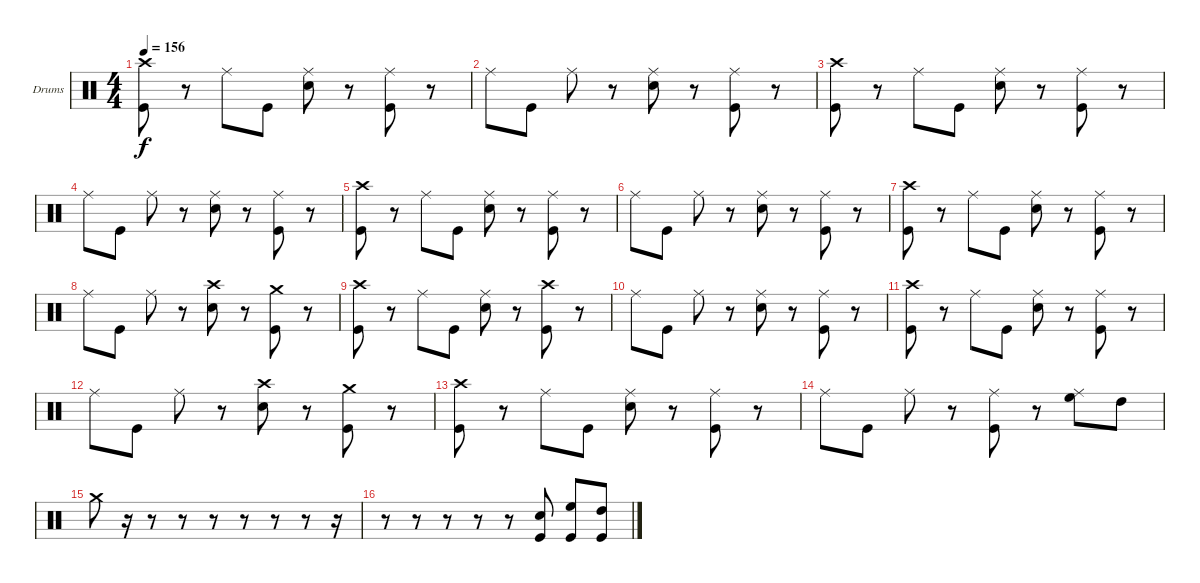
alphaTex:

\defaultSystemsLayout 4
\bracketExtendMode groupsimilarinstruments
\firstSystemTrackNameOrientation horizontal
\otherSystemsTrackNameOrientation horizontal
\track ("Anton Kubrak" "Drums") {instrument percussion}
\staff {score}
\articulation defaults
\ts (4 4)
\tempo 156
\clef neutral
\scale
0.333333
\ks c
("Crash high (hit)" "Kick (hit)").8{dy f} r.8 "Ride (middle)".8 "Kick (hit)".8 ("Ride (middle)" "Snare (hit) 2").8 r.8 ("Ride (middle)" "Kick (hit)").8 r.8 |
\scale
0.333333 "Ride (middle)".8 "Kick (hit)".8 "Ride (middle)".8 r.8 ("Ride (middle)" "Snare (hit) 2").8 r.8 ("Ride (middle)" "Kick (hit)").8 r.8 |
\scale
0.333333 ("Crash high (hit)" "Kick (hit)").8 r.8 "Ride (middle)".8 "Kick (hit)".8 ("Ride (middle)" "Snare (hit) 2").8 r.8 ("Ride (middle)" "Kick (hit)").8 r.8 |
\scale
0.333333 "Ride (middle)".8 "Kick (hit)".8 "Ride (middle)".8 r.8 ("Ride (middle)" "Snare (hit) 2").8 r.8 ("Ride (middle)" "Kick (hit)").8 r.8 |
\scale
0.333333 ("Crash high (hit)" "Kick (hit)").8 r.8 "Ride (middle)".8 "Kick (hit)".8 ("Ride (middle)" "Snare (hit) 2").8 r.8 ("Ride (middle)" "Kick (hit)").8 r.8 |
\scale
0.333333 "Ride (middle)".8 "Kick (hit)".8 "Ride (middle)".8 r.8 ("Ride (middle)" "Snare (hit) 2").8 r.8 ("Ride (middle)" "Kick (hit)").8 r.8 |
\scale
0.333333 ("Crash high (hit)" "Kick (hit)").8 r.8 "Ride (middle)".8 "Kick (hit)".8 ("Ride (middle)" "Snare (hit) 2").8 r.8 ("Ride (middle)" "Kick (hit)").8 r.8 |
\scale
0.333333 "Ride (middle)".8 "Kick (hit)".8 "Ride (middle)".8 r.8 ("Crash high (hit)" "Snare (hit) 2").8 r.8 ("Crash medium (hit)" "Kick (hit)").8 r.8 |
\scale
0.333333 ("Crash high (hit)" "Kick (hit)").8 r.8 "Ride (middle)".8 "Kick (hit)".8 ("Ride (middle)" "Snare (hit) 2").8 r.8 ("Crash high (hit)" "Kick (hit)").8 r.8 |
\scale
0.333333 "Ride (middle)".8 "Kick (hit)".8 "Ride (middle)".8 r.8 ("Ride (middle)" "Snare (hit) 2").8 r.8 ("Ride (middle)" "Kick (hit)").8 r.8 |
\scale
0.333333 ("Crash high (hit)" "Kick (hit)").8 r.8 "Ride (middle)".8 "Kick (hit)".8 ("Ride (middle)" "Snare (hit) 2").8 r.8 ("Ride (middle)" "Kick (hit)").8 r.8 |
\scale
0.333333 "Ride (middle)".8 "Kick (hit)".8 "Ride (middle)".8 r.8 ("Crash high (hit)" "Snare (hit) 2").8 r.8 ("Crash medium (hit)" "Kick (hit)").8 r.8 |
\scale
0.333333 ("Crash high (hit)" "Kick (hit)").8 r.8 "Ride (middle)".8 "Kick (hit)".8 ("Ride (middle)" "Snare (hit) 2").8 r.8 ("Ride (middle)" "Kick (hit)").8 r.8 |
\scale
0.333333 "Ride (middle)".8 "Kick (hit)".8 "Ride (middle)".8 r.8 ("Ride (middle)" "Kick (hit)").8 r.8 ("Ride (middle)" "High Floor Tom (hit)").8 "High Tom (hit)".8 |
\scale
0.333333 "Crash medium (hit)".8 r.16 r.8 r.8 r.8 r.8 r.8 r.8 r.16 |
\scale
0.333333 r.8 r.8 r.8 r.8 r.8 ("Snare (hit) 2" "Kick (hit)").8 ("High Floor Tom (hit)" "Kick (hit)").8 ("High Tom (hit)" "Kick (hit)").8
